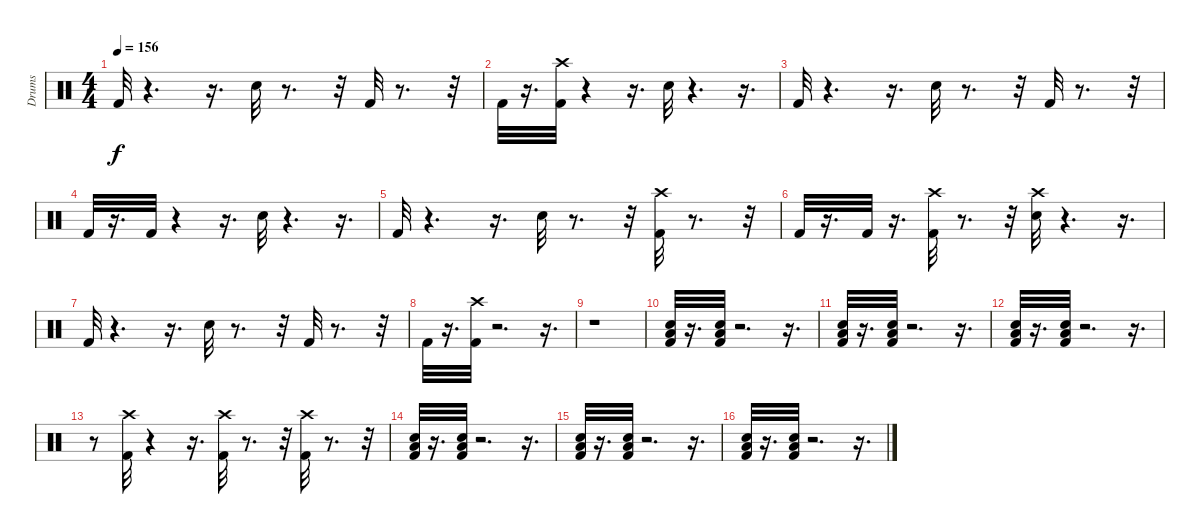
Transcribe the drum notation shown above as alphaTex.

\track ("Drums" "Drums") {instrument percussion}
\staff {score}
\articulation defaults
\ts (4 4)
\tempo 156
\clef neutral
\ks c "Kick (hit) 2".32{dy f}
r.4{d} r.16{d} "Snare (hit) 2".32 r.8{d} r.32 "Kick (hit) 2".32 r.8{d} r.32 |
"Kick (hit) 2".32 r.16{d} ("Crash high (hit)" "Kick (hit) 2").32 r.4 r.16{d} "Snare (hit) 2".32 r.4{d} r.16{d} |
"Kick (hit) 2".32 r.4{d} r.16{d} "Snare (hit) 2".32 r.8{d} r.32 "Kick (hit) 2".32 r.8{d} r.32 |
"Kick (hit) 2".32 r.16{d} "Kick (hit) 2".32 r.4 r.16{d} "Snare (hit) 2".32 r.4{d} r.16{d} |
"Kick (hit) 2".32 r.4{d} r.16{d} "Snare (hit) 2".32 r.8{d} r.32 ("Crash high (hit)" "Kick (hit) 2").32 r.8{d} r.32 |
"Kick (hit) 2".32 r.16{d} "Kick (hit) 2".32 r.16{d} ("Kick (hit) 2" "Crash high (hit)").32 r.8{d} r.32 ("Crash high (hit)" "Snare (hit) 2").32 r.4{d} r.16{d} |
"Kick (hit) 2".32 r.4{d} r.16{d} "Snare (hit) 2".32 r.8{d} r.32 "Kick (hit) 2".32 r.8{d} r.32 |
"Kick (hit) 2".32 r.16{d} ("Crash high (hit)" "Kick (hit) 2").32 r.2{d} r.16{d} |
r.1 |
("Low Floor Tom (hit)" "Snare (hit) 2" "Kick (hit) 2").32 r.16{d} ("Low Floor Tom (hit)" "Snare (hit) 2" "Kick (hit) 2").32 r.2{d} r.16{d} |
("Snare (hit) 2" "Kick (hit) 2" "Low Floor Tom (hit)").32 r.16{d} ("Kick (hit) 2" "Snare (hit) 2" "Low Floor Tom (hit)").32 r.2{d} r.16{d} |
("Snare (hit) 2" "Kick (hit) 2" "Low Floor Tom (hit)").32 r.16{d} ("Kick (hit) 2" "Snare (hit) 2" "Low Floor Tom (hit)").32 r.2{d} r.16{d} |
r.8 ("Kick (hit) 2" "Crash high (hit)").32 r.4 r.16{d} ("Crash high (hit)" "Kick (hit) 2").32 r.8{d} r.32 ("Kick (hit) 2" "Crash high (hit)").32 r.8{d} r.32 |
("Low Floor Tom (hit)" "Snare (hit) 2" "Kick (hit) 2").32 r.16{d} ("Low Floor Tom (hit)" "Snare (hit) 2" "Kick (hit) 2").32 r.2{d} r.16{d} |
("Snare (hit) 2" "Kick (hit) 2" "Low Floor Tom (hit)").32 r.16{d} ("Kick (hit) 2" "Snare (hit) 2" "Low Floor Tom (hit)").32 r.2{d} r.16{d} |
("Snare (hit) 2" "Kick (hit) 2" "Low Floor Tom (hit)").32 r.16{d} ("Kick (hit) 2" "Snare (hit) 2" "Low Floor Tom (hit)").32 r.2{d} r.16{d}
